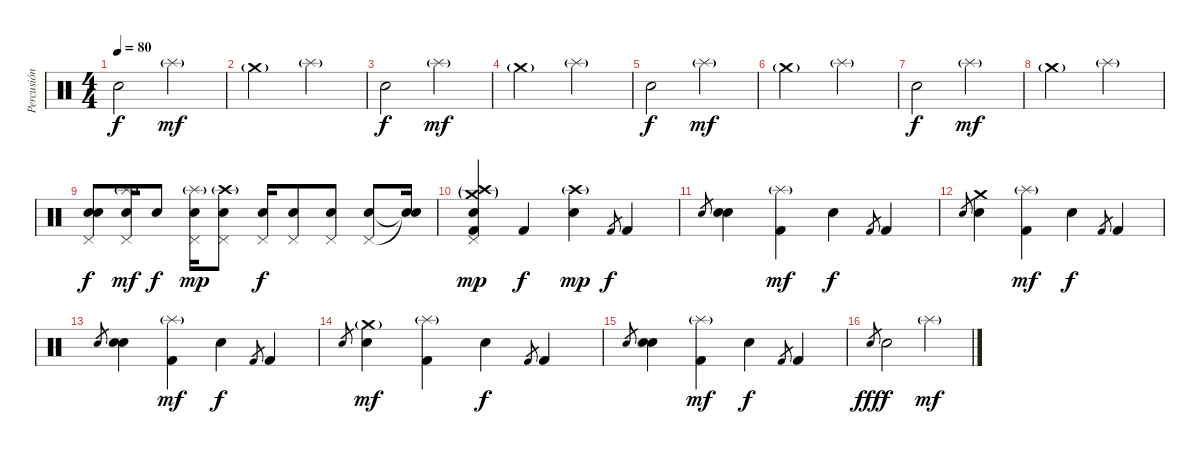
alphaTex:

\track ("Percusión" "Percusión") {instrument percussion}
\staff {score}
\articulation defaults
\ts (4 4)
\tempo 80
\clef neutral
\ks c "Snare (hit)"{x}.2{dy f} "Splash (hit)"{g}.2{dy mf}
|
"Crash medium (hit)"{g}.2 "Splash (hit)"{g}.2 |
"Snare (hit)"{x}.2{dy f} "Splash (hit)"{g}.2{dy mf} |
"Crash medium (hit)"{g}.2 "Splash (hit)"{g}.2 |
"Snare (hit)"{x}.2{dy f} "Splash (hit)"{g}.2{dy mf} |
"Crash medium (hit)"{g}.2 "Splash (hit)"{g}.2 |
"Snare (hit)"{x}.2{dy f} "Splash (hit)"{g}.2{dy mf} |
"Crash medium (hit)"{g}.2 "Splash (hit)"{g}.2 |
("Snare (hit)"{x} "Snare (hit) 2" "Pedal Hi-Hat (hit)").8{dy f} ("Splash (hit)"{g} "Snare (hit) 2" "Pedal Hi-Hat (hit)").16{dy mf} "Snare (hit)"{x}.8{dy f} ("Splash (hit)"{g} "Pedal Hi-Hat (hit)" "Snare (hit) 2").16{dy mp} ("Crash high (hit)"{g} "Pedal Hi-Hat (hit)" "Snare (hit) 2").8 ("Snare (hit) 2" "Pedal Hi-Hat (hit)").16{dy f} ("Snare (hit) 2" "Pedal Hi-Hat (hit)").8 ("Snare (hit) 2" "Pedal Hi-Hat (hit)").8 ("Snare (hit) 2" "Pedal Hi-Hat (hit)").8 ("Snare (hit)"{t} "Snare (hit)"{t}).16 |
("Crash medium (hit)"{g} "Crash high (hit)"{g} "Pedal Hi-Hat (hit)" "Snare (hit) 2" "Kick (hit) 2").4{dy mp} "Kick (hit) 2".4{dy f} ("Crash high (hit)"{g} "Snare (hit) 2").4{dy mp} "Kick (hit) 2".8{gr dy f} "Kick (hit) 2".4 |
"Snare (hit) 2".8{gr} ("Snare (hit)"{x} "Snare (hit) 2").4 ("Splash (hit)"{g} "Kick (hit) 2").4{dy mf} "Snare (hit) 2".4{dy f} "Kick (hit) 2".8{gr} "Kick (hit) 2".4 |
"Snare (hit) 2".8{gr} ("Crash medium (hit)" "Snare (hit) 2").4 ("Splash (hit)"{g} "Kick (hit) 2").4{dy mf} "Snare (hit) 2".4{dy f} "Kick (hit) 2".8{gr} "Kick (hit) 2".4 |
"Snare (hit) 2".8{gr} ("Snare (hit)"{x} "Snare (hit) 2").4 ("Splash (hit)"{g} "Kick (hit) 2").4{dy mf} "Snare (hit) 2".4{dy f} "Kick (hit) 2".8{gr} "Kick (hit) 2".4 |
"Snare (hit) 2".8{gr} ("Crash medium (hit)"{g} "Snare (hit) 2").4{dy mf} ("Splash (hit)"{g} "Kick (hit) 2").4 "Snare (hit) 2".4{dy f} "Kick (hit) 2".8{gr} "Kick (hit) 2".4 |
"Snare (hit) 2".8{gr} ("Snare (hit)"{x} "Snare (hit) 2").4 ("Splash (hit)"{g} "Kick (hit) 2").4{dy mf} "Snare (hit) 2".4{dy f} "Kick (hit) 2".8{gr} "Kick (hit) 2".4 |
"Snare (hit) 2".8{gr dy fff} "Snare (hit) 2".2{dy f} "Splash (hit)"{g}.2{dy mf}
